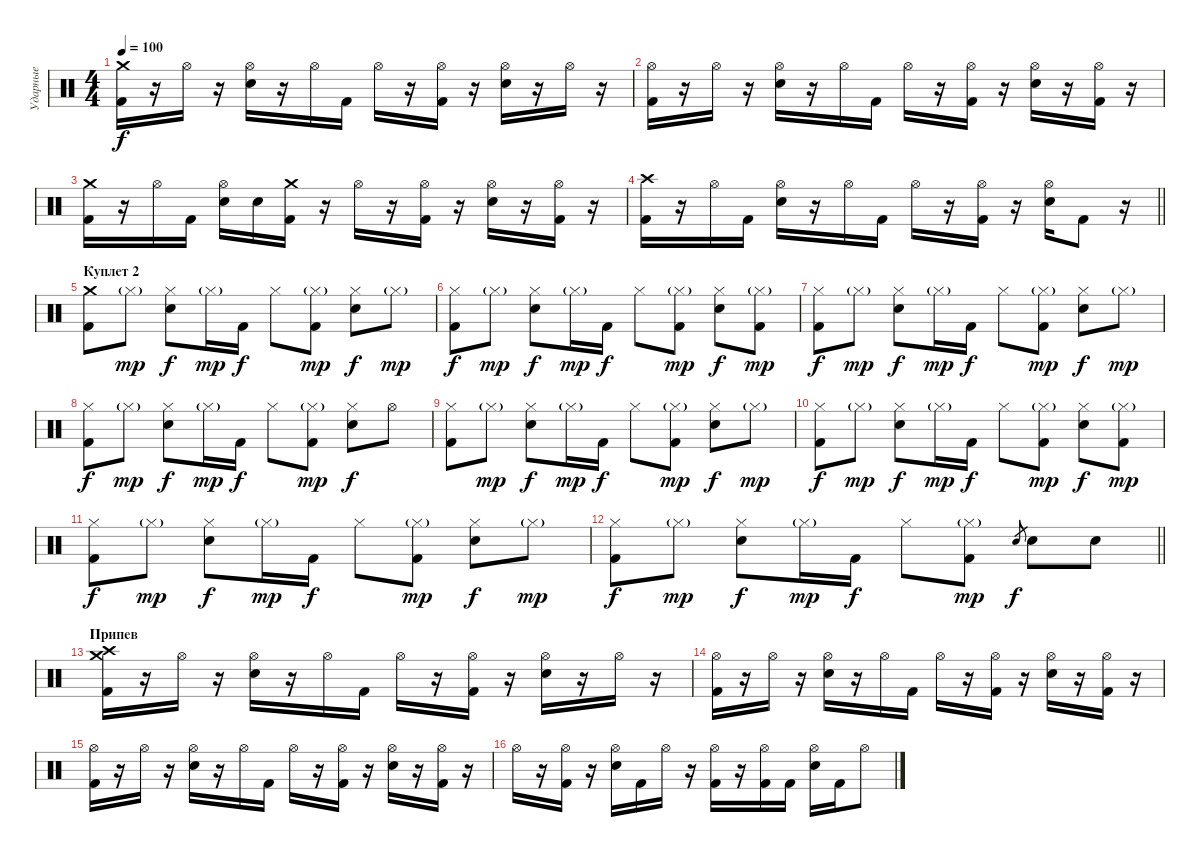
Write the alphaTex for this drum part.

\track ("Ударные" "Ударные") {instrument percussion}
\staff {score}
\articulation defaults
\ts (4 4)
\tempo 100
\clef neutral
\ks c
("Crash medium (hit)" "Kick (hit) 2").16{dy f} r.16 "Hi-Hat (open)".16 r.16 ("Hi-Hat (open)" "Snare (hit) 2").16 r.16 "Hi-Hat (open)".16 "Kick (hit) 2".16 "Hi-Hat (open)".16 r.16 ("Hi-Hat (open)" "Kick (hit) 2").16 r.16 ("Hi-Hat (open)" "Snare (hit) 2").16 r.16 "Hi-Hat (open)".16 r.16 |
("Hi-Hat (open)" "Kick (hit) 2").16 r.16 "Hi-Hat (open)".16 r.16 ("Hi-Hat (open)" "Snare (hit) 2").16 r.16 "Hi-Hat (open)".16 "Kick (hit) 2".16 "Hi-Hat (open)".16 r.16 ("Hi-Hat (open)" "Kick (hit) 2").16 r.16 ("Hi-Hat (open)" "Snare (hit) 2").16 r.16 ("Hi-Hat (open)" "Kick (hit) 2").16 r.16 |
("Crash medium (hit)" "Kick (hit) 2").16 r.16 "Hi-Hat (open)".16 "Kick (hit) 2".16 ("Hi-Hat (open)" "Snare (hit) 2").16 "Snare (hit) 2".16 ("Crash medium (hit)" "Kick (hit) 2").16 r.16 "Hi-Hat (open)".16 r.16 ("Hi-Hat (open)" "Kick (hit) 2").16 r.16 ("Hi-Hat (open)" "Snare (hit) 2").16 r.16 ("Hi-Hat (open)" "Kick (hit) 2").16 r.16 |
\barLineRight lightlight
("Crash high (hit)" "Kick (hit) 2").16 r.16 "Hi-Hat (open)".16 "Kick (hit) 2".16 ("Hi-Hat (open)" "Snare (hit) 2").16 r.16 "Hi-Hat (open)".16 "Kick (hit) 2".16 "Hi-Hat (open)".16 r.16 ("Hi-Hat (open)" "Kick (hit) 2").16 r.16 ("Hi-Hat (open)" "Snare (hit) 2").16 "Kick (hit) 2".8 r.16 |
\section ("" "Куплет 2")
("Crash medium (hit)" "Kick (hit) 2").8 "Hi-Hat (closed)"{g}.8{dy mp} ("Hi-Hat (closed)" "Snare (hit) 2").8{dy f} "Hi-Hat (closed)"{g}.16{dy mp} "Kick (hit) 2".16{dy f} "Hi-Hat (closed)".8 ("Hi-Hat (closed)"{g} "Kick (hit) 2").8{dy mp} ("Hi-Hat (closed)" "Snare (hit) 2").8{dy f} "Hi-Hat (closed)"{g}.8{dy mp} |
("Hi-Hat (closed)" "Kick (hit) 2").8{dy f} "Hi-Hat (closed)"{g}.8{dy mp} ("Hi-Hat (closed)" "Snare (hit) 2").8{dy f} "Hi-Hat (closed)"{g}.16{dy mp} "Kick (hit) 2".16{dy f} "Hi-Hat (closed)".8 ("Hi-Hat (closed)"{g} "Kick (hit) 2").8{dy mp} ("Hi-Hat (closed)" "Snare (hit) 2").8{dy f} ("Hi-Hat (closed)"{g} "Kick (hit) 2").8{dy mp} |
("Hi-Hat (closed)" "Kick (hit) 2").8{dy f} "Hi-Hat (closed)"{g}.8{dy mp} ("Hi-Hat (closed)" "Snare (hit) 2").8{dy f} "Hi-Hat (closed)"{g}.16{dy mp} "Kick (hit) 2".16{dy f} "Hi-Hat (closed)".8 ("Hi-Hat (closed)"{g} "Kick (hit) 2").8{dy mp} ("Hi-Hat (closed)" "Snare (hit) 2").8{dy f} "Hi-Hat (closed)"{g}.8{dy mp} |
("Hi-Hat (closed)" "Kick (hit) 2").8{dy f} "Hi-Hat (closed)"{g}.8{dy mp} ("Hi-Hat (closed)" "Snare (hit) 2").8{dy f} "Hi-Hat (closed)"{g}.16{dy mp} "Kick (hit) 2".16{dy f} "Hi-Hat (closed)".8 ("Hi-Hat (closed)"{g} "Kick (hit) 2").8{dy mp} ("Hi-Hat (closed)" "Snare (hit) 2").8{dy f} "Hi-Hat (open)".8 |
("Hi-Hat (closed)" "Kick (hit) 2").8 "Hi-Hat (closed)"{g}.8{dy mp} ("Hi-Hat (closed)" "Snare (hit) 2").8{dy f} "Hi-Hat (closed)"{g}.16{dy mp} "Kick (hit) 2".16{dy f} "Hi-Hat (closed)".8 ("Hi-Hat (closed)"{g} "Kick (hit) 2").8{dy mp} ("Hi-Hat (closed)" "Snare (hit) 2").8{dy f} "Hi-Hat (closed)"{g}.8{dy mp} |
("Hi-Hat (closed)" "Kick (hit) 2").8{dy f} "Hi-Hat (closed)"{g}.8{dy mp} ("Hi-Hat (closed)" "Snare (hit) 2").8{dy f} "Hi-Hat (closed)"{g}.16{dy mp} "Kick (hit) 2".16{dy f} "Hi-Hat (closed)".8 ("Hi-Hat (closed)"{g} "Kick (hit) 2").8{dy mp} ("Hi-Hat (closed)" "Snare (hit) 2").8{dy f} ("Hi-Hat (closed)"{g} "Kick (hit) 2").8{dy mp} |
("Hi-Hat (closed)" "Kick (hit) 2").8{dy f} "Hi-Hat (closed)"{g}.8{dy mp} ("Hi-Hat (closed)" "Snare (hit) 2").8{dy f} "Hi-Hat (closed)"{g}.16{dy mp} "Kick (hit) 2".16{dy f} "Hi-Hat (closed)".8 ("Hi-Hat (closed)"{g} "Kick (hit) 2").8{dy mp} ("Hi-Hat (closed)" "Snare (hit) 2").8{dy f} "Hi-Hat (closed)"{g}.8{dy mp} |
\barLineRight lightlight
("Hi-Hat (closed)" "Kick (hit) 2").8{dy f} "Hi-Hat (closed)"{g}.8{dy mp} ("Hi-Hat (closed)" "Snare (hit) 2").8{dy f} "Hi-Hat (closed)"{g}.16{dy mp} "Kick (hit) 2".16{dy f} "Hi-Hat (closed)".8 ("Hi-Hat (closed)"{g} "Kick (hit) 2").8{dy mp} "Snare (hit) 2".8{gr dy f} "Snare (hit) 2".8 "Snare (hit) 2".8 |
\section ("" "Припев")
("Crash medium (hit)" "Crash high (hit)" "Kick (hit) 2").16 r.16 "Hi-Hat (open)".16 r.16 ("Hi-Hat (open)" "Snare (hit) 2").16 r.16 "Hi-Hat (open)".16 "Kick (hit) 2".16 "Hi-Hat (open)".16 r.16 ("Hi-Hat (open)" "Kick (hit) 2").16 r.16 ("Hi-Hat (open)" "Snare (hit) 2").16 r.16 "Hi-Hat (open)".16 r.16 |
("Hi-Hat (open)" "Kick (hit) 2").16 r.16 "Hi-Hat (open)".16 r.16 ("Hi-Hat (open)" "Snare (hit) 2").16 r.16 "Hi-Hat (open)".16 "Kick (hit) 2".16 "Hi-Hat (open)".16 r.16 ("Hi-Hat (open)" "Kick (hit) 2").16 r.16 ("Hi-Hat (open)" "Snare (hit) 2").16 r.16 ("Hi-Hat (open)" "Kick (hit) 2").16 r.16 |
("Hi-Hat (open)" "Kick (hit) 2").16 r.16 "Hi-Hat (open)".16 r.16 ("Hi-Hat (open)" "Snare (hit) 2").16 r.16 "Hi-Hat (open)".16 "Kick (hit) 2".16 "Hi-Hat (open)".16 r.16 ("Hi-Hat (open)" "Kick (hit) 2").16 r.16 ("Hi-Hat (open)" "Snare (hit) 2").16 r.16 ("Hi-Hat (open)" "Kick (hit) 2").16 r.16 |
"Hi-Hat (open)".16 r.16 ("Hi-Hat (open)" "Kick (hit) 2").16 r.16 ("Hi-Hat (open)" "Snare (hit) 2").16 "Kick (hit) 2".16 "Hi-Hat (open)".16 r.16 ("Hi-Hat (open)" "Kick (hit) 2").16 r.16 ("Hi-Hat (open)" "Kick (hit) 2").16 "Kick (hit) 2".16 ("Hi-Hat (open)" "Snare (hit) 2").16 "Kick (hit) 2".16 "Hi-Hat (open)".8
